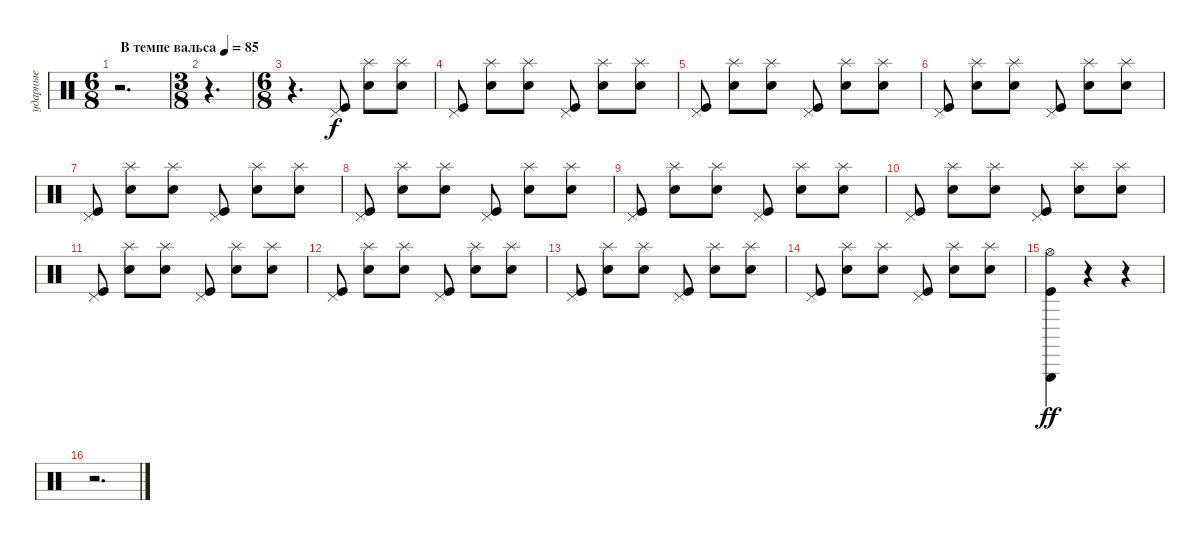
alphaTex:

\track ("ударные" "ударные") {instrument percussion}
\staff {score}
\articulation defaults
\ts (6 8)
\tempo (85 "В темпе вальса")
\clef neutral
\ks aminor
r.2{d dy f} |
\ts (3 8)
r.4{d} |
\ts (6 8)
r.4{d} ("Kick (hit)" "Pedal Hi-Hat (hit)").8{beam split} ("Snare (hit) 2" "Splash (hit)").8 ("Snare (hit) 2" "Splash (hit)").8 |
("Kick (hit)" "Pedal Hi-Hat (hit)").8{beam split} ("Snare (hit) 2" "Splash (hit)").8 ("Snare (hit) 2" "Splash (hit)").8 ("Kick (hit)" "Pedal Hi-Hat (hit)").8{beam split} ("Snare (hit) 2" "Splash (hit)").8 ("Snare (hit) 2" "Splash (hit)").8 |
("Kick (hit)" "Pedal Hi-Hat (hit)").8{beam split} ("Snare (hit) 2" "Splash (hit)").8 ("Snare (hit) 2" "Splash (hit)").8 ("Kick (hit)" "Pedal Hi-Hat (hit)").8{beam split} ("Snare (hit) 2" "Splash (hit)").8 ("Snare (hit) 2" "Splash (hit)").8 |
("Kick (hit)" "Pedal Hi-Hat (hit)").8{beam split} ("Snare (hit) 2" "Splash (hit)").8 ("Snare (hit) 2" "Splash (hit)").8 ("Kick (hit)" "Pedal Hi-Hat (hit)").8{beam split} ("Snare (hit) 2" "Splash (hit)").8 ("Snare (hit) 2" "Splash (hit)").8 |
("Kick (hit)" "Pedal Hi-Hat (hit)").8{beam split} ("Snare (hit) 2" "Splash (hit)").8 ("Snare (hit) 2" "Splash (hit)").8 ("Kick (hit)" "Pedal Hi-Hat (hit)").8{beam split} ("Snare (hit) 2" "Splash (hit)").8 ("Snare (hit) 2" "Splash (hit)").8 |
("Kick (hit)" "Pedal Hi-Hat (hit)").8{beam split} ("Snare (hit) 2" "Splash (hit)").8 ("Snare (hit) 2" "Splash (hit)").8 ("Kick (hit)" "Pedal Hi-Hat (hit)").8{beam split} ("Snare (hit) 2" "Splash (hit)").8 ("Snare (hit) 2" "Splash (hit)").8 |
("Kick (hit)" "Pedal Hi-Hat (hit)").8{beam split} ("Snare (hit) 2" "Splash (hit)").8 ("Snare (hit) 2" "Splash (hit)").8 ("Kick (hit)" "Pedal Hi-Hat (hit)").8{beam split} ("Snare (hit) 2" "Splash (hit)").8 ("Snare (hit) 2" "Splash (hit)").8 |
("Kick (hit)" "Pedal Hi-Hat (hit)").8{beam split} ("Snare (hit) 2" "Splash (hit)").8 ("Snare (hit) 2" "Splash (hit)").8 ("Kick (hit)" "Pedal Hi-Hat (hit)").8{beam split} ("Snare (hit) 2" "Splash (hit)").8 ("Snare (hit) 2" "Splash (hit)").8 |
("Kick (hit)" "Pedal Hi-Hat (hit)").8{beam split} ("Snare (hit) 2" "Splash (hit)").8 ("Snare (hit) 2" "Splash (hit)").8 ("Kick (hit)" "Pedal Hi-Hat (hit)").8{beam split} ("Snare (hit) 2" "Splash (hit)").8 ("Snare (hit) 2" "Splash (hit)").8 |
("Kick (hit)" "Pedal Hi-Hat (hit)").8{beam split} ("Snare (hit) 2" "Splash (hit)").8 ("Snare (hit) 2" "Splash (hit)").8 ("Kick (hit)" "Pedal Hi-Hat (hit)").8{beam split} ("Snare (hit) 2" "Splash (hit)").8 ("Snare (hit) 2" "Splash (hit)").8 |
("Kick (hit)" "Pedal Hi-Hat (hit)").8{beam split} ("Snare (hit) 2" "Splash (hit)").8 ("Snare (hit) 2" "Splash (hit)").8 ("Kick (hit)" "Pedal Hi-Hat (hit)").8{beam split} ("Snare (hit) 2" "Splash (hit)").8 ("Snare (hit) 2" "Splash (hit)").8 |
("Kick (hit)" "Pedal Hi-Hat (hit)").8{beam split} ("Snare (hit) 2" "Splash (hit)").8 ("Snare (hit) 2" "Splash (hit)").8 ("Kick (hit)" "Pedal Hi-Hat (hit)").8{beam split} ("Snare (hit) 2" "Splash (hit)").8{beam merge} ("Snare (hit) 2" "Splash (hit)").8 |
("Kick (hit)" "Triangle (hit)" "Hi-Hat (open)").4{dy ff} r.4 r.4 |
r.2{d}
